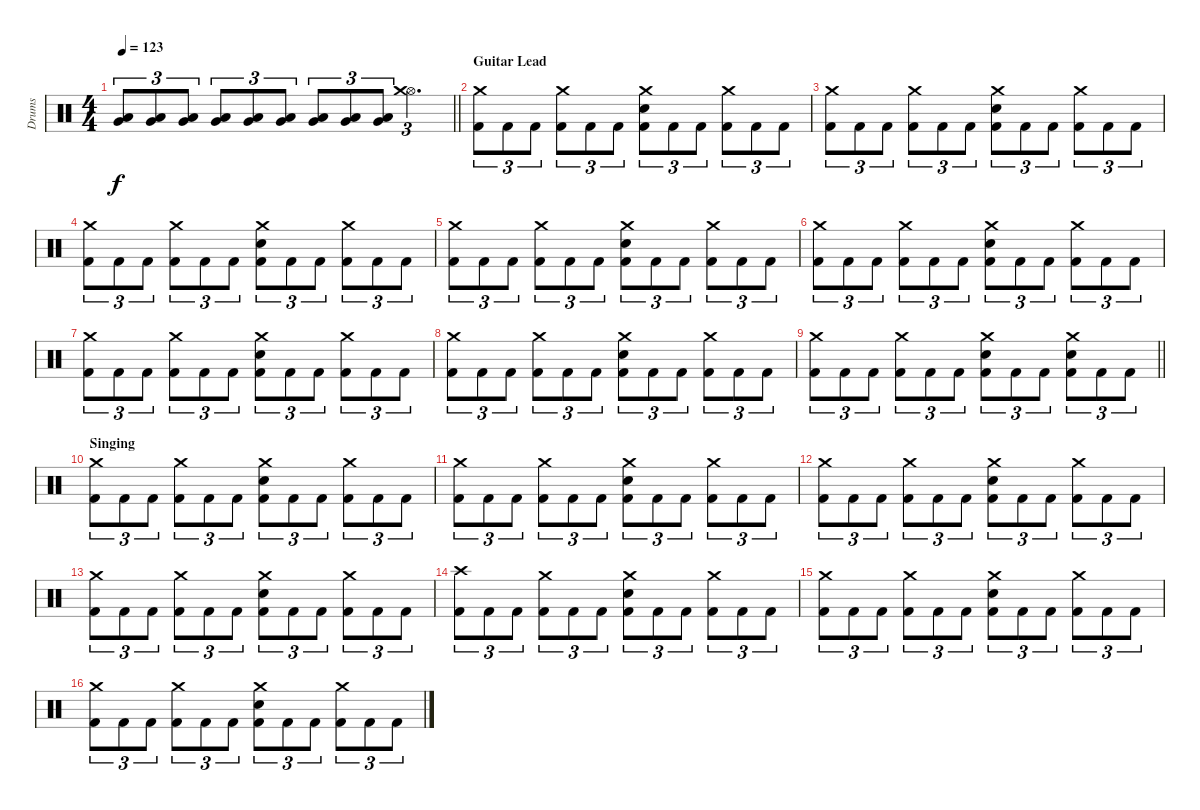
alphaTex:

\track ("Drums" "Drums") {instrument percussion}
\staff {score}
\articulation defaults
\ts (4 4)
\tempo 123
\clef neutral
\barLineRight lightlight
\ks c
("Very Low Tom (hit)" "Low Floor Tom (hit)").8{tu (3 2) dy f} ("Very Low Tom (hit)" "Low Floor Tom (hit)").8{tu (3 2)} ("Very Low Tom (hit)" "Low Floor Tom (hit)").8{tu (3 2)} ("Very Low Tom (hit)" "Low Floor Tom (hit)").8{tu (3 2)} ("Very Low Tom (hit)" "Low Floor Tom (hit)").8{tu (3 2)} ("Very Low Tom (hit)" "Low Floor Tom (hit)").8{tu (3 2)} ("Very Low Tom (hit)" "Low Floor Tom (hit)").8{tu (3 2)} ("Very Low Tom (hit)" "Low Floor Tom (hit)").8{tu (3 2)} ("Very Low Tom (hit)" "Low Floor Tom (hit)").8{tu (3 2)} ("Hi-Hat (open)" "Crash medium (hit)").4{d tu (3 2)} |
\section ("" "Guitar Lead")
("Kick (hit) 2" "Crash medium (hit)").8{tu (3 2)} "Kick (hit) 2".8{tu (3 2)} "Kick (hit) 2".8{tu (3 2)} ("Kick (hit) 2" "Crash medium (hit)").8{tu (3 2)} "Kick (hit) 2".8{tu (3 2)} "Kick (hit) 2".8{tu (3 2)} ("Kick (hit) 2" "Snare (hit) 2" "Crash medium (hit)").8{tu (3 2)} "Kick (hit) 2".8{tu (3 2)} "Kick (hit) 2".8{tu (3 2)} ("Kick (hit) 2" "Crash medium (hit)").8{tu (3 2)} "Kick (hit) 2".8{tu (3 2)} "Kick (hit) 2".8{tu (3 2)} |
("Kick (hit) 2" "Crash medium (hit)").8{tu (3 2)} "Kick (hit) 2".8{tu (3 2)} "Kick (hit) 2".8{tu (3 2)} ("Kick (hit) 2" "Crash medium (hit)").8{tu (3 2)} "Kick (hit) 2".8{tu (3 2)} "Kick (hit) 2".8{tu (3 2)} ("Kick (hit) 2" "Snare (hit) 2" "Crash medium (hit)").8{tu (3 2)} "Kick (hit) 2".8{tu (3 2)} "Kick (hit) 2".8{tu (3 2)} ("Kick (hit) 2" "Crash medium (hit)").8{tu (3 2)} "Kick (hit) 2".8{tu (3 2)} "Kick (hit) 2".8{tu (3 2)} |
("Kick (hit) 2" "Crash medium (hit)").8{tu (3 2)} "Kick (hit) 2".8{tu (3 2)} "Kick (hit) 2".8{tu (3 2)} ("Kick (hit) 2" "Crash medium (hit)").8{tu (3 2)} "Kick (hit) 2".8{tu (3 2)} "Kick (hit) 2".8{tu (3 2)} ("Kick (hit) 2" "Snare (hit) 2" "Crash medium (hit)").8{tu (3 2)} "Kick (hit) 2".8{tu (3 2)} "Kick (hit) 2".8{tu (3 2)} ("Kick (hit) 2" "Crash medium (hit)").8{tu (3 2)} "Kick (hit) 2".8{tu (3 2)} "Kick (hit) 2".8{tu (3 2)} |
("Kick (hit) 2" "Crash medium (hit)").8{tu (3 2)} "Kick (hit) 2".8{tu (3 2)} "Kick (hit) 2".8{tu (3 2)} ("Kick (hit) 2" "Crash medium (hit)").8{tu (3 2)} "Kick (hit) 2".8{tu (3 2)} "Kick (hit) 2".8{tu (3 2)} ("Kick (hit) 2" "Snare (hit) 2" "Crash medium (hit)").8{tu (3 2)} "Kick (hit) 2".8{tu (3 2)} "Kick (hit) 2".8{tu (3 2)} ("Kick (hit) 2" "Crash medium (hit)").8{tu (3 2)} "Kick (hit) 2".8{tu (3 2)} "Kick (hit) 2".8{tu (3 2)} |
("Kick (hit) 2" "Crash medium (hit)").8{tu (3 2)} "Kick (hit) 2".8{tu (3 2)} "Kick (hit) 2".8{tu (3 2)} ("Kick (hit) 2" "Crash medium (hit)").8{tu (3 2)} "Kick (hit) 2".8{tu (3 2)} "Kick (hit) 2".8{tu (3 2)} ("Kick (hit) 2" "Snare (hit) 2" "Crash medium (hit)").8{tu (3 2)} "Kick (hit) 2".8{tu (3 2)} "Kick (hit) 2".8{tu (3 2)} ("Kick (hit) 2" "Crash medium (hit)").8{tu (3 2)} "Kick (hit) 2".8{tu (3 2)} "Kick (hit) 2".8{tu (3 2)} |
("Kick (hit) 2" "Crash medium (hit)").8{tu (3 2)} "Kick (hit) 2".8{tu (3 2)} "Kick (hit) 2".8{tu (3 2)} ("Kick (hit) 2" "Crash medium (hit)").8{tu (3 2)} "Kick (hit) 2".8{tu (3 2)} "Kick (hit) 2".8{tu (3 2)} ("Kick (hit) 2" "Snare (hit) 2" "Crash medium (hit)").8{tu (3 2)} "Kick (hit) 2".8{tu (3 2)} "Kick (hit) 2".8{tu (3 2)} ("Kick (hit) 2" "Crash medium (hit)").8{tu (3 2)} "Kick (hit) 2".8{tu (3 2)} "Kick (hit) 2".8{tu (3 2)} |
("Kick (hit) 2" "Crash medium (hit)").8{tu (3 2)} "Kick (hit) 2".8{tu (3 2)} "Kick (hit) 2".8{tu (3 2)} ("Kick (hit) 2" "Crash medium (hit)").8{tu (3 2)} "Kick (hit) 2".8{tu (3 2)} "Kick (hit) 2".8{tu (3 2)} ("Kick (hit) 2" "Snare (hit) 2" "Crash medium (hit)").8{tu (3 2)} "Kick (hit) 2".8{tu (3 2)} "Kick (hit) 2".8{tu (3 2)} ("Kick (hit) 2" "Crash medium (hit)").8{tu (3 2)} "Kick (hit) 2".8{tu (3 2)} "Kick (hit) 2".8{tu (3 2)} |
\barLineRight lightlight
("Kick (hit) 2" "Crash medium (hit)").8{tu (3 2)} "Kick (hit) 2".8{tu (3 2)} "Kick (hit) 2".8{tu (3 2)} ("Kick (hit) 2" "Crash medium (hit)").8{tu (3 2)} "Kick (hit) 2".8{tu (3 2)} "Kick (hit) 2".8{tu (3 2)} ("Kick (hit) 2" "Snare (hit) 2" "Crash medium (hit)").8{tu (3 2)} "Kick (hit) 2".8{tu (3 2)} "Kick (hit) 2".8{tu (3 2)} ("Kick (hit) 2" "Snare (hit) 2" "Crash medium (hit)").8{tu (3 2)} "Kick (hit) 2".8{tu (3 2)} "Kick (hit) 2".8{tu (3 2)} |
\section ("" "Singing")
("Kick (hit) 2" "Crash medium (hit)").8{tu (3 2)} "Kick (hit) 2".8{tu (3 2)} "Kick (hit) 2".8{tu (3 2)} ("Kick (hit) 2" "Crash medium (hit)").8{tu (3 2)} "Kick (hit) 2".8{tu (3 2)} "Kick (hit) 2".8{tu (3 2)} ("Kick (hit) 2" "Snare (hit) 2" "Crash medium (hit)").8{tu (3 2)} "Kick (hit) 2".8{tu (3 2)} "Kick (hit) 2".8{tu (3 2)} ("Kick (hit) 2" "Crash medium (hit)").8{tu (3 2)} "Kick (hit) 2".8{tu (3 2)} "Kick (hit) 2".8{tu (3 2)} |
("Kick (hit) 2" "Crash medium (hit)").8{tu (3 2)} "Kick (hit) 2".8{tu (3 2)} "Kick (hit) 2".8{tu (3 2)} ("Kick (hit) 2" "Crash medium (hit)").8{tu (3 2)} "Kick (hit) 2".8{tu (3 2)} "Kick (hit) 2".8{tu (3 2)} ("Kick (hit) 2" "Snare (hit) 2" "Crash medium (hit)").8{tu (3 2)} "Kick (hit) 2".8{tu (3 2)} "Kick (hit) 2".8{tu (3 2)} ("Kick (hit) 2" "Crash medium (hit)").8{tu (3 2)} "Kick (hit) 2".8{tu (3 2)} "Kick (hit) 2".8{tu (3 2)} |
("Kick (hit) 2" "Crash medium (hit)").8{tu (3 2)} "Kick (hit) 2".8{tu (3 2)} "Kick (hit) 2".8{tu (3 2)} ("Kick (hit) 2" "Crash medium (hit)").8{tu (3 2)} "Kick (hit) 2".8{tu (3 2)} "Kick (hit) 2".8{tu (3 2)} ("Kick (hit) 2" "Snare (hit) 2" "Crash medium (hit)").8{tu (3 2)} "Kick (hit) 2".8{tu (3 2)} "Kick (hit) 2".8{tu (3 2)} ("Kick (hit) 2" "Crash medium (hit)").8{tu (3 2)} "Kick (hit) 2".8{tu (3 2)} "Kick (hit) 2".8{tu (3 2)} |
("Kick (hit) 2" "Crash medium (hit)").8{tu (3 2)} "Kick (hit) 2".8{tu (3 2)} "Kick (hit) 2".8{tu (3 2)} ("Kick (hit) 2" "Crash medium (hit)").8{tu (3 2)} "Kick (hit) 2".8{tu (3 2)} "Kick (hit) 2".8{tu (3 2)} ("Kick (hit) 2" "Snare (hit) 2" "Crash medium (hit)").8{tu (3 2)} "Kick (hit) 2".8{tu (3 2)} "Kick (hit) 2".8{tu (3 2)} ("Kick (hit) 2" "Crash medium (hit)").8{tu (3 2)} "Kick (hit) 2".8{tu (3 2)} "Kick (hit) 2".8{tu (3 2)} |
("Kick (hit) 2" "Crash high (hit)").8{tu (3 2)} "Kick (hit) 2".8{tu (3 2)} "Kick (hit) 2".8{tu (3 2)} ("Kick (hit) 2" "Crash medium (hit)").8{tu (3 2)} "Kick (hit) 2".8{tu (3 2)} "Kick (hit) 2".8{tu (3 2)} ("Kick (hit) 2" "Snare (hit) 2" "Crash medium (hit)").8{tu (3 2)} "Kick (hit) 2".8{tu (3 2)} "Kick (hit) 2".8{tu (3 2)} ("Kick (hit) 2" "Crash medium (hit)").8{tu (3 2)} "Kick (hit) 2".8{tu (3 2)} "Kick (hit) 2".8{tu (3 2)} |
("Kick (hit) 2" "Crash medium (hit)").8{tu (3 2)} "Kick (hit) 2".8{tu (3 2)} "Kick (hit) 2".8{tu (3 2)} ("Kick (hit) 2" "Crash medium (hit)").8{tu (3 2)} "Kick (hit) 2".8{tu (3 2)} "Kick (hit) 2".8{tu (3 2)} ("Kick (hit) 2" "Snare (hit) 2" "Crash medium (hit)").8{tu (3 2)} "Kick (hit) 2".8{tu (3 2)} "Kick (hit) 2".8{tu (3 2)} ("Kick (hit) 2" "Crash medium (hit)").8{tu (3 2)} "Kick (hit) 2".8{tu (3 2)} "Kick (hit) 2".8{tu (3 2)} |
("Kick (hit) 2" "Crash medium (hit)").8{tu (3 2)} "Kick (hit) 2".8{tu (3 2)} "Kick (hit) 2".8{tu (3 2)} ("Kick (hit) 2" "Crash medium (hit)").8{tu (3 2)} "Kick (hit) 2".8{tu (3 2)} "Kick (hit) 2".8{tu (3 2)} ("Kick (hit) 2" "Snare (hit) 2" "Crash medium (hit)").8{tu (3 2)} "Kick (hit) 2".8{tu (3 2)} "Kick (hit) 2".8{tu (3 2)} ("Kick (hit) 2" "Crash medium (hit)").8{tu (3 2)} "Kick (hit) 2".8{tu (3 2)} "Kick (hit) 2".8{tu (3 2)}
